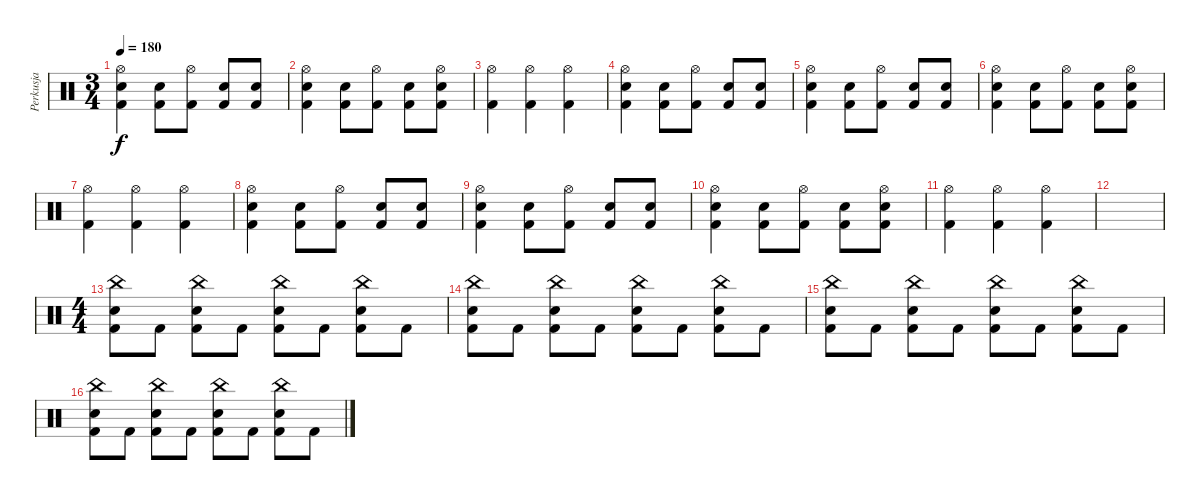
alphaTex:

\track ("Perkusja" "Perkusja") {instrument percussion}
\staff {score}
\articulation defaults
\ts (3 4)
\tempo 180
\clef neutral
\ks c
("Hi-Hat (open)" "Snare (hit) 2" "Kick (hit) 2").4{dy f} ("Snare (hit) 2" "Kick (hit) 2").8 ("Hi-Hat (open)" "Kick (hit) 2").8 ("Snare (hit) 2" "Kick (hit) 2").8 ("Snare (hit) 2" "Kick (hit) 2").8 |
("Hi-Hat (open)" "Snare (hit) 2" "Kick (hit) 2").4 ("Snare (hit) 2" "Kick (hit) 2").8 ("Hi-Hat (open)" "Kick (hit) 2").8 ("Snare (hit) 2" "Kick (hit) 2").8 ("Hi-Hat (open)" "Snare (hit) 2" "Kick (hit) 2").8 |
("Hi-Hat (open)" "Kick (hit) 2").4 ("Hi-Hat (open)" "Kick (hit) 2").4 ("Hi-Hat (open)" "Kick (hit) 2").4 |
("Hi-Hat (open)" "Snare (hit) 2" "Kick (hit) 2").4 ("Snare (hit) 2" "Kick (hit) 2").8 ("Hi-Hat (open)" "Kick (hit) 2").8 ("Snare (hit) 2" "Kick (hit) 2").8 ("Snare (hit) 2" "Kick (hit) 2").8 |
("Hi-Hat (open)" "Snare (hit) 2" "Kick (hit) 2").4 ("Snare (hit) 2" "Kick (hit) 2").8 ("Hi-Hat (open)" "Kick (hit) 2").8 ("Snare (hit) 2" "Kick (hit) 2").8 ("Snare (hit) 2" "Kick (hit) 2").8 |
("Hi-Hat (open)" "Snare (hit) 2" "Kick (hit) 2").4 ("Snare (hit) 2" "Kick (hit) 2").8 ("Hi-Hat (open)" "Kick (hit) 2").8 ("Snare (hit) 2" "Kick (hit) 2").8 ("Hi-Hat (open)" "Snare (hit) 2" "Kick (hit) 2").8 |
("Hi-Hat (open)" "Kick (hit) 2").4 ("Hi-Hat (open)" "Kick (hit) 2").4 ("Hi-Hat (open)" "Kick (hit) 2").4 |
("Hi-Hat (open)" "Snare (hit) 2" "Kick (hit) 2").4 ("Snare (hit) 2" "Kick (hit) 2").8 ("Hi-Hat (open)" "Kick (hit) 2").8 ("Snare (hit) 2" "Kick (hit) 2").8 ("Snare (hit) 2" "Kick (hit) 2").8 |
("Hi-Hat (open)" "Snare (hit) 2" "Kick (hit) 2").4 ("Snare (hit) 2" "Kick (hit) 2").8 ("Hi-Hat (open)" "Kick (hit) 2").8 ("Snare (hit) 2" "Kick (hit) 2").8 ("Snare (hit) 2" "Kick (hit) 2").8 |
("Hi-Hat (open)" "Snare (hit) 2" "Kick (hit) 2").4 ("Snare (hit) 2" "Kick (hit) 2").8 ("Hi-Hat (open)" "Kick (hit) 2").8 ("Snare (hit) 2" "Kick (hit) 2").8 ("Hi-Hat (open)" "Snare (hit) 2" "Kick (hit) 2").8 |
("Hi-Hat (open)" "Kick (hit) 2").4 ("Hi-Hat (open)" "Kick (hit) 2").4 ("Hi-Hat (open)" "Kick (hit) 2").4 |
|
\ts (4 4)
("China (hit)" "Snare (hit) 2" "Kick (hit) 2").8 "Kick (hit) 2".8 ("China (hit)" "Snare (hit) 2" "Kick (hit) 2").8 "Kick (hit) 2".8 ("China (hit)" "Snare (hit) 2" "Kick (hit) 2").8 "Kick (hit) 2".8 ("China (hit)" "Snare (hit) 2" "Kick (hit) 2").8 "Kick (hit) 2".8 |
("China (hit)" "Snare (hit) 2" "Kick (hit) 2").8 "Kick (hit) 2".8 ("China (hit)" "Snare (hit) 2" "Kick (hit) 2").8 "Kick (hit) 2".8 ("China (hit)" "Snare (hit) 2" "Kick (hit) 2").8 "Kick (hit) 2".8 ("China (hit)" "Snare (hit) 2" "Kick (hit) 2").8 "Kick (hit) 2".8 |
("China (hit)" "Snare (hit) 2" "Kick (hit) 2").8 "Kick (hit) 2".8 ("China (hit)" "Snare (hit) 2" "Kick (hit) 2").8 "Kick (hit) 2".8 ("China (hit)" "Snare (hit) 2" "Kick (hit) 2").8 "Kick (hit) 2".8 ("China (hit)" "Snare (hit) 2" "Kick (hit) 2").8 "Kick (hit) 2".8 |
("China (hit)" "Snare (hit) 2" "Kick (hit) 2").8 "Kick (hit) 2".8 ("China (hit)" "Snare (hit) 2" "Kick (hit) 2").8 "Kick (hit) 2".8 ("China (hit)" "Snare (hit) 2" "Kick (hit) 2").8 "Kick (hit) 2".8 ("China (hit)" "Snare (hit) 2" "Kick (hit) 2").8 "Kick (hit) 2".8
